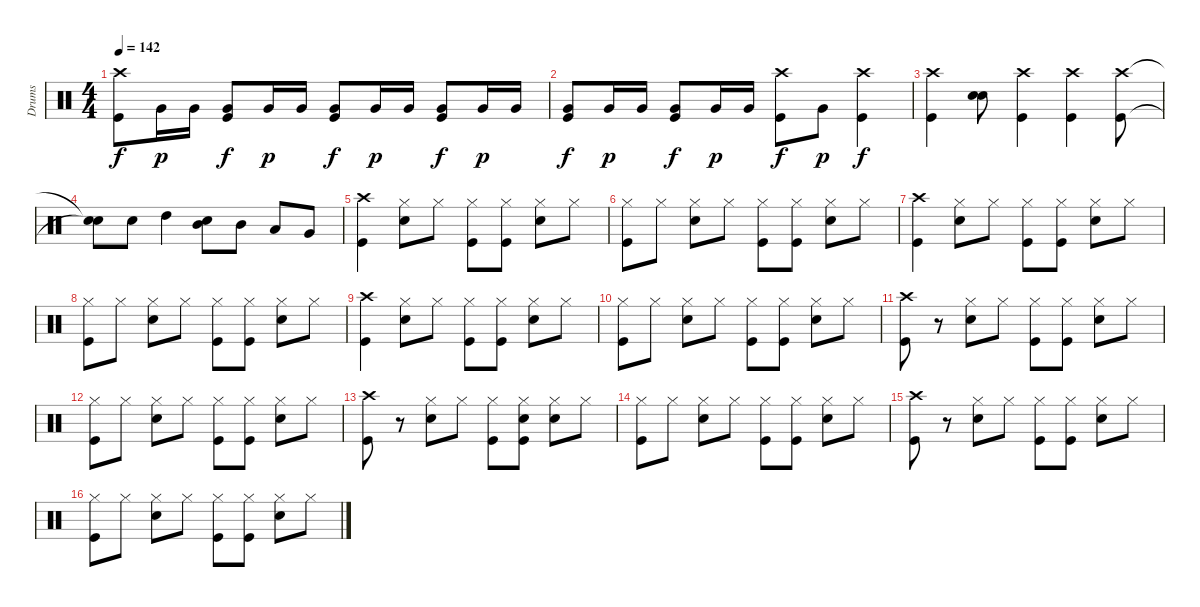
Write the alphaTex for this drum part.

\track ("Drums" "Drums") {instrument percussion}
\staff {score}
\articulation defaults
\ts (4 4)
\tempo 142
\clef neutral
\ks c
("Kick (hit)" "Crash high (hit)").8{dy f} "Very Low Tom (hit)".16{dy p} "Very Low Tom (hit)".16 ("Kick (hit)" "Very Low Tom (hit)").8{dy f} "Very Low Tom (hit)".16{dy p} "Very Low Tom (hit)".16 ("Kick (hit)" "Very Low Tom (hit)").8{dy f} "Very Low Tom (hit)".16{dy p} "Very Low Tom (hit)".16 ("Very Low Tom (hit)" "Kick (hit)").8{dy f} "Very Low Tom (hit)".16{dy p} "Very Low Tom (hit)".16 |
("Very Low Tom (hit)" "Kick (hit)").8{dy f} "Very Low Tom (hit)".16{dy p} "Very Low Tom (hit)".16 ("Very Low Tom (hit)" "Kick (hit)").8{dy f} "Very Low Tom (hit)".16{dy p} "Very Low Tom (hit)".16 ("Kick (hit)" "Crash high (hit)").8{dy f} "Very Low Tom (hit)".8{dy p} ("Crash high (hit)" "Kick (hit)").4{dy f} |
("Crash high (hit)" "Kick (hit)").4 ("Snare (hit) 2" "Snare (hit) 2").8 ("Kick (hit)" "Crash high (hit)").4 ("Crash high (hit)" "Kick (hit)").4 ("Crash high (hit)" "Kick (hit)").8 |
("Snare (hit)"{t} "Snare (hit)"{t}).8 "Snare (hit) 2".8 "High Tom (hit)".4 ("Mid Tom (hit)" "Snare (hit) 2").8 "Mid Tom (hit)".8 "Low Tom (hit)".8 "Very Low Tom (hit)".8 |
("Kick (hit)" "Crash high (hit)").4 ("Hi-Hat (closed)" "Snare (hit) 2").8 "Hi-Hat (closed)".8 ("Kick (hit)" "Hi-Hat (closed)").8 ("Hi-Hat (closed)" "Kick (hit)").8 ("Hi-Hat (closed)" "Snare (hit) 2").8 "Hi-Hat (closed)".8 |
("Hi-Hat (closed)" "Kick (hit)").8 "Hi-Hat (closed)".8 ("Hi-Hat (closed)" "Snare (hit) 2").8 "Hi-Hat (closed)".8 ("Hi-Hat (closed)" "Kick (hit)").8 ("Hi-Hat (closed)" "Kick (hit)").8 ("Hi-Hat (closed)" "Snare (hit) 2").8 "Hi-Hat (closed)".8 |
("Kick (hit)" "Crash high (hit)").4 ("Hi-Hat (closed)" "Snare (hit) 2").8 "Hi-Hat (closed)".8 ("Kick (hit)" "Hi-Hat (closed)").8 ("Hi-Hat (closed)" "Kick (hit)").8 ("Hi-Hat (closed)" "Snare (hit) 2").8 "Hi-Hat (closed)".8 |
("Hi-Hat (closed)" "Kick (hit)").8 "Hi-Hat (closed)".8 ("Hi-Hat (closed)" "Snare (hit) 2").8 "Hi-Hat (closed)".8 ("Hi-Hat (closed)" "Kick (hit)").8 ("Hi-Hat (closed)" "Kick (hit)").8 ("Hi-Hat (closed)" "Snare (hit) 2").8 "Hi-Hat (closed)".8 |
("Kick (hit)" "Crash high (hit)").4 ("Hi-Hat (closed)" "Snare (hit) 2").8 "Hi-Hat (closed)".8 ("Kick (hit)" "Hi-Hat (closed)").8 ("Hi-Hat (closed)" "Kick (hit)").8 ("Hi-Hat (closed)" "Snare (hit) 2").8 "Hi-Hat (closed)".8 |
("Hi-Hat (closed)" "Kick (hit)").8 "Hi-Hat (closed)".8 ("Hi-Hat (closed)" "Snare (hit) 2").8 "Hi-Hat (closed)".8 ("Hi-Hat (closed)" "Kick (hit)").8 ("Hi-Hat (closed)" "Kick (hit)").8 ("Hi-Hat (closed)" "Snare (hit) 2").8 "Hi-Hat (closed)".8 |
("Kick (hit)" "Crash high (hit)").8 r.8 ("Hi-Hat (closed)" "Snare (hit) 2").8 "Hi-Hat (closed)".8 ("Kick (hit)" "Hi-Hat (closed)").8 ("Hi-Hat (closed)" "Kick (hit)").8 ("Hi-Hat (closed)" "Snare (hit) 2").8 "Hi-Hat (closed)".8 |
("Hi-Hat (closed)" "Kick (hit)").8 "Hi-Hat (closed)".8 ("Hi-Hat (closed)" "Snare (hit) 2").8 "Hi-Hat (closed)".8 ("Hi-Hat (closed)" "Kick (hit)").8 ("Hi-Hat (closed)" "Kick (hit)").8 ("Hi-Hat (closed)" "Snare (hit) 2").8 "Hi-Hat (closed)".8 |
("Kick (hit)" "Crash high (hit)").8 r.8 ("Hi-Hat (closed)" "Snare (hit) 2").8 "Hi-Hat (closed)".8 ("Kick (hit)" "Hi-Hat (closed)").8 ("Snare (hit) 2" "Hi-Hat (closed)" "Kick (hit)").8 ("Hi-Hat (closed)" "Snare (hit) 2").8 "Hi-Hat (closed)".8 |
("Hi-Hat (closed)" "Kick (hit)").8 "Hi-Hat (closed)".8 ("Hi-Hat (closed)" "Snare (hit) 2").8 "Hi-Hat (closed)".8 ("Hi-Hat (closed)" "Kick (hit)").8 ("Hi-Hat (closed)" "Kick (hit)").8 ("Hi-Hat (closed)" "Snare (hit) 2").8 "Hi-Hat (closed)".8 |
("Kick (hit)" "Crash high (hit)").8 r.8 ("Hi-Hat (closed)" "Snare (hit) 2").8 "Hi-Hat (closed)".8 ("Kick (hit)" "Hi-Hat (closed)").8 ("Hi-Hat (closed)" "Kick (hit)").8 ("Hi-Hat (closed)" "Snare (hit) 2").8 "Hi-Hat (closed)".8 |
("Hi-Hat (closed)" "Kick (hit)").8 "Hi-Hat (closed)".8 ("Hi-Hat (closed)" "Snare (hit) 2").8 "Hi-Hat (closed)".8 ("Hi-Hat (closed)" "Kick (hit)").8 ("Hi-Hat (closed)" "Kick (hit)").8 ("Hi-Hat (closed)" "Snare (hit) 2").8 "Hi-Hat (closed)".8
